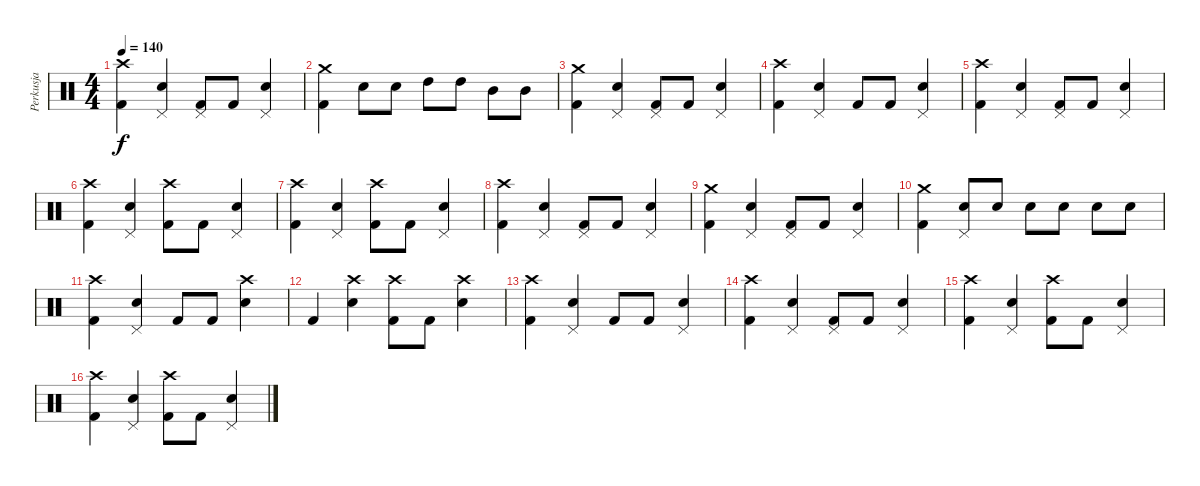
\track ("Perkusja" "Perkusja") {instrument percussion}
\staff {score}
\articulation defaults
\ts (4 4)
\tempo 140
\clef neutral
\ks c
("Crash high (hit)" "Kick (hit) 2").4{dy f} ("Pedal Hi-Hat (hit)" "Snare (hit) 2").4 ("Pedal Hi-Hat (hit)" "Kick (hit) 2").8 "Kick (hit) 2".8 ("Pedal Hi-Hat (hit)" "Snare (hit) 2").4 |
("Crash medium (hit)" "Kick (hit) 2").4 "Snare (hit) 2".8 "Snare (hit) 2".8 "High Tom (hit)".8 "High Tom (hit)".8 "Mid Tom (hit)".8 "Mid Tom (hit)".8 |
("Crash medium (hit)" "Kick (hit) 2").4 ("Pedal Hi-Hat (hit)" "Snare (hit) 2").4 ("Pedal Hi-Hat (hit)" "Kick (hit) 2").8 "Kick (hit) 2".8 ("Pedal Hi-Hat (hit)" "Snare (hit) 2").4 |
("Crash high (hit)" "Kick (hit) 2").4 ("Pedal Hi-Hat (hit)" "Snare (hit) 2").4 "Kick (hit) 2".8 "Kick (hit) 2".8 ("Pedal Hi-Hat (hit)" "Snare (hit) 2").4 |
("Crash high (hit)" "Kick (hit) 2").4 ("Pedal Hi-Hat (hit)" "Snare (hit) 2").4 ("Pedal Hi-Hat (hit)" "Kick (hit) 2").8 "Kick (hit) 2".8 ("Pedal Hi-Hat (hit)" "Snare (hit) 2").4 |
("Crash high (hit)" "Kick (hit) 2").4 ("Pedal Hi-Hat (hit)" "Snare (hit) 2").4 ("Crash high (hit)" "Kick (hit) 2").8 "Kick (hit) 2".8 ("Pedal Hi-Hat (hit)" "Snare (hit) 2").4 |
("Crash high (hit)" "Kick (hit) 2").4 ("Pedal Hi-Hat (hit)" "Snare (hit) 2").4 ("Crash high (hit)" "Kick (hit) 2").8 "Kick (hit) 2".8 ("Pedal Hi-Hat (hit)" "Snare (hit) 2").4 |
("Crash high (hit)" "Kick (hit) 2").4 ("Pedal Hi-Hat (hit)" "Snare (hit) 2").4 ("Pedal Hi-Hat (hit)" "Kick (hit) 2").8 "Kick (hit) 2".8 ("Pedal Hi-Hat (hit)" "Snare (hit) 2").4 |
("Crash medium (hit)" "Kick (hit) 2").4 ("Pedal Hi-Hat (hit)" "Snare (hit) 2").4 ("Pedal Hi-Hat (hit)" "Kick (hit) 2").8 "Kick (hit) 2".8 ("Pedal Hi-Hat (hit)" "Snare (hit) 2").4 |
("Crash medium (hit)" "Kick (hit) 2").4 ("Pedal Hi-Hat (hit)" "Snare (hit) 2").8 "Snare (hit) 2".8 "Snare (hit) 2".8 "Snare (hit) 2".8 "Snare (hit) 2".8 "Snare (hit) 2".8 |
("Crash high (hit)" "Kick (hit) 2").4 ("Pedal Hi-Hat (hit)" "Snare (hit) 2").4 "Kick (hit) 2".8 "Kick (hit) 2".8 ("Crash high (hit)" "Snare (hit) 2").4 |
"Kick (hit) 2".4 ("Crash high (hit)" "Snare (hit) 2").4 ("Crash high (hit)" "Kick (hit) 2").8 "Kick (hit) 2".8 ("Crash high (hit)" "Snare (hit) 2").4 |
("Crash high (hit)" "Kick (hit) 2").4 ("Pedal Hi-Hat (hit)" "Snare (hit) 2").4 "Kick (hit) 2".8 "Kick (hit) 2".8 ("Pedal Hi-Hat (hit)" "Snare (hit) 2").4 |
("Crash high (hit)" "Kick (hit) 2").4 ("Pedal Hi-Hat (hit)" "Snare (hit) 2").4 ("Pedal Hi-Hat (hit)" "Kick (hit) 2").8 "Kick (hit) 2".8 ("Pedal Hi-Hat (hit)" "Snare (hit) 2").4 |
("Crash high (hit)" "Kick (hit) 2").4 ("Pedal Hi-Hat (hit)" "Snare (hit) 2").4 ("Crash high (hit)" "Kick (hit) 2").8 "Kick (hit) 2".8 ("Pedal Hi-Hat (hit)" "Snare (hit) 2").4 |
("Crash high (hit)" "Kick (hit) 2").4 ("Pedal Hi-Hat (hit)" "Snare (hit) 2").4 ("Crash high (hit)" "Kick (hit) 2").8 "Kick (hit) 2".8 ("Pedal Hi-Hat (hit)" "Snare (hit) 2").4
